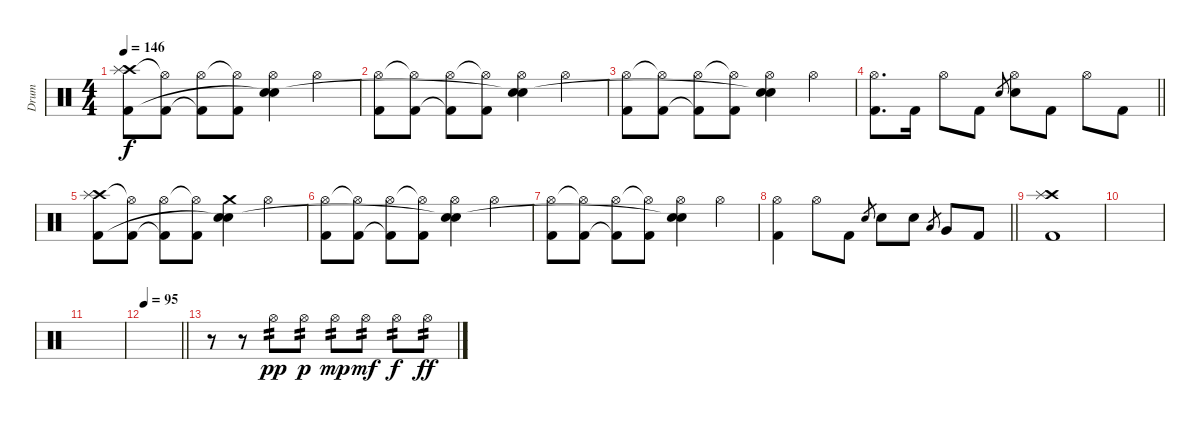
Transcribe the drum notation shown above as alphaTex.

\track ("Drum" "Drum") {instrument percussion}
\staff {score}
\articulation defaults
\ts (4 4)
\tempo 146
\clef neutral
\ks c
("Crash high (hit)" "Splash (hit)" "Kick (hit) 2").8{dy f} ("Hi-Hat (open)"{t} "Kick (hit) 2").8 ("Hi-Hat (open)" "Kick (hit) 2"{t}).8 ("Hi-Hat (open)"{t} "Kick (hit) 2").8 ("Hi-Hat (open)" "Electric Snare (hit)" "Snare (hit)"{t}).4 "Hi-Hat (open)".4 |
("Hi-Hat (open)" "Kick (hit) 2").8 ("Hi-Hat (open)"{t} "Kick (hit) 2").8 ("Hi-Hat (open)" "Kick (hit) 2"{t}).8 ("Hi-Hat (open)"{t} "Kick (hit) 2").8 ("Hi-Hat (open)" "Electric Snare (hit)" "Snare (hit)"{t}).4 "Hi-Hat (open)".4 |
("Hi-Hat (open)" "Kick (hit) 2").8 ("Hi-Hat (open)"{t} "Kick (hit) 2").8 ("Hi-Hat (open)" "Kick (hit) 2"{t}).8 ("Hi-Hat (open)"{t} "Kick (hit) 2").8 ("Hi-Hat (open)" "Electric Snare (hit)" "Snare (hit)"{t}).4 "Hi-Hat (open)".4 |
\barLineRight lightlight
("Hi-Hat (open)" "Kick (hit) 2").8{d} "Kick (hit) 2".16 "Hi-Hat (open)".8 "Kick (hit) 2".8 "Electric Snare (hit)".8{gr} ("Hi-Hat (open)" "Electric Snare (hit)").8 "Kick (hit) 2".8 "Hi-Hat (open)".8 "Kick (hit) 2".8 |
("Crash high (hit)" "Splash (hit)" "Kick (hit) 2").8 ("Hi-Hat (open)"{t} "Kick (hit) 2").8 ("Hi-Hat (open)" "Kick (hit) 2"{t}).8 ("Hi-Hat (open)"{t} "Kick (hit) 2").8 ("Crash medium (hit)" "Electric Snare (hit)" "Snare (hit)"{t}).4 "Hi-Hat (open)".4 |
("Hi-Hat (open)" "Kick (hit) 2").8 ("Hi-Hat (open)"{t} "Kick (hit) 2").8 ("Hi-Hat (open)" "Kick (hit) 2"{t}).8 ("Hi-Hat (open)"{t} "Kick (hit) 2").8 ("Hi-Hat (open)" "Electric Snare (hit)" "Snare (hit)"{t}).4 "Hi-Hat (open)".4 |
("Hi-Hat (open)" "Kick (hit) 2").8 ("Hi-Hat (open)"{t} "Kick (hit) 2").8 ("Hi-Hat (open)" "Kick (hit) 2"{t}).8 ("Hi-Hat (open)"{t} "Kick (hit) 2").8 ("Hi-Hat (open)" "Electric Snare (hit)" "Snare (hit)"{t}).4 "Hi-Hat (open)".4 |
\barLineRight lightlight
("Hi-Hat (open)" "Kick (hit) 2").4 "Hi-Hat (open)".8 "Kick (hit) 2".8 "Electric Snare (hit)".8{gr} "Electric Snare (hit)".8 "Electric Snare (hit)".8 "Low Floor Tom (hit)".8{gr} "Very Low Tom (hit)".8 "Kick (hit) 2".8 |
("Crash high (hit)" "Splash (hit)" "Kick (hit) 2").1 |
|
|
\tempo 95
\barLineRight lightlight
|
r.8 r.8 "Hi-Hat (open)".8{tp 2 dy pp} "Hi-Hat (open)".8{tp 2 dy p} "Hi-Hat (open)".8{tp 2 dy mp} "Hi-Hat (open)".8{tp 2 dy mf} "Hi-Hat (open)".8{tp 2 dy f} "Hi-Hat (open)".8{tp 2 dy ff}
